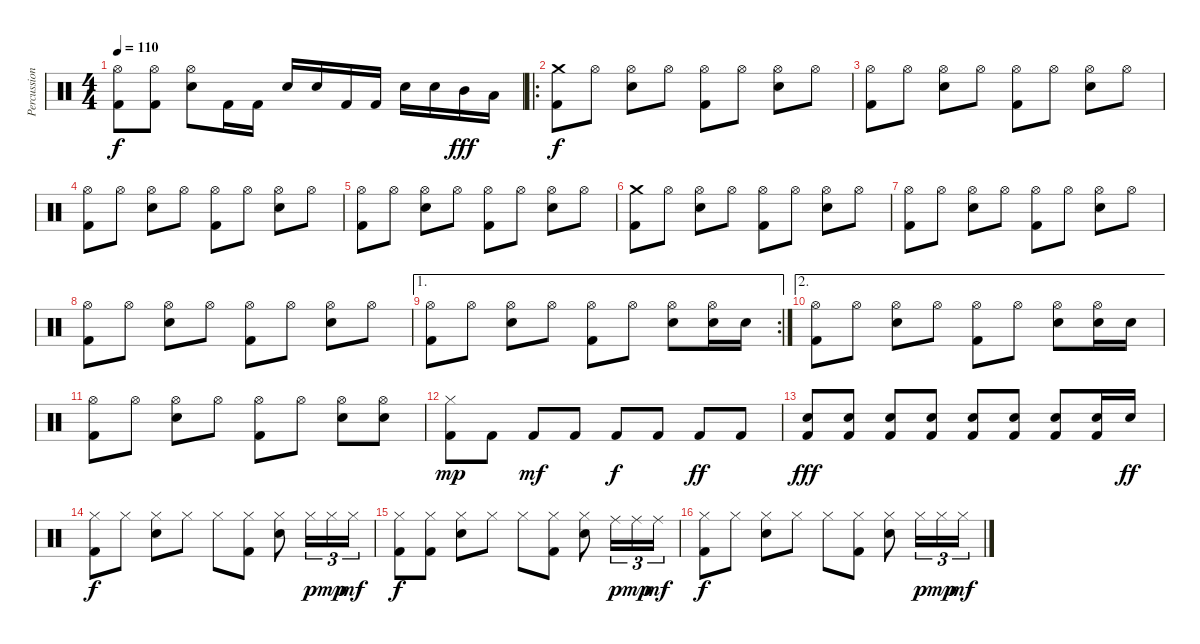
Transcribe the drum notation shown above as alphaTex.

\track ("Percussions" "Percussion") {instrument percussion}
\staff {score}
\articulation defaults
\ts (4 4)
\tempo 110
\clef neutral
\ks c
("Hi-Hat (open)" "Kick (hit) 2").8{dy f} ("Hi-Hat (open)" "Kick (hit) 2").8 ("Hi-Hat (open)" "Electric Snare (hit)").8 "Kick (hit) 2".16 "Kick (hit) 2".16 "Electric Snare (hit)".16 "Electric Snare (hit)".16 "Kick (hit) 2".16 "Kick (hit) 2".16 "Electric Snare (hit)".16 "Electric Snare (hit)".16 "Mid Tom (hit)".16{dy fff} "Low Tom (hit)".16 |
\ro
("Crash medium (hit)" "Kick (hit) 2").8{dy f} "Hi-Hat (open)".8 ("Hi-Hat (open)" "Electric Snare (hit)").8 "Hi-Hat (open)".8 ("Hi-Hat (open)" "Kick (hit) 2").8 "Hi-Hat (open)".8 ("Hi-Hat (open)" "Electric Snare (hit)").8 "Hi-Hat (open)".8 |
("Hi-Hat (open)" "Kick (hit) 2").8 "Hi-Hat (open)".8 ("Hi-Hat (open)" "Electric Snare (hit)").8 "Hi-Hat (open)".8 ("Hi-Hat (open)" "Kick (hit) 2").8 "Hi-Hat (open)".8 ("Hi-Hat (open)" "Electric Snare (hit)").8 "Hi-Hat (open)".8 |
("Hi-Hat (open)" "Kick (hit) 2").8 "Hi-Hat (open)".8 ("Hi-Hat (open)" "Electric Snare (hit)").8 "Hi-Hat (open)".8 ("Hi-Hat (open)" "Kick (hit) 2").8 "Hi-Hat (open)".8 ("Hi-Hat (open)" "Electric Snare (hit)").8 "Hi-Hat (open)".8 |
("Hi-Hat (open)" "Kick (hit) 2").8 "Hi-Hat (open)".8 ("Hi-Hat (open)" "Electric Snare (hit)").8 "Hi-Hat (open)".8 ("Hi-Hat (open)" "Kick (hit) 2").8 "Hi-Hat (open)".8 ("Hi-Hat (open)" "Electric Snare (hit)").8 "Hi-Hat (open)".8 |
("Crash medium (hit)" "Kick (hit) 2").8 "Hi-Hat (open)".8 ("Hi-Hat (open)" "Electric Snare (hit)").8 "Hi-Hat (open)".8 ("Hi-Hat (open)" "Kick (hit) 2").8 "Hi-Hat (open)".8 ("Hi-Hat (open)" "Electric Snare (hit)").8 "Hi-Hat (open)".8 |
("Hi-Hat (open)" "Kick (hit) 2").8 "Hi-Hat (open)".8 ("Hi-Hat (open)" "Electric Snare (hit)").8 "Hi-Hat (open)".8 ("Hi-Hat (open)" "Kick (hit) 2").8 "Hi-Hat (open)".8 ("Hi-Hat (open)" "Electric Snare (hit)").8 "Hi-Hat (open)".8 |
("Hi-Hat (open)" "Kick (hit) 2").8 "Hi-Hat (open)".8 ("Hi-Hat (open)" "Electric Snare (hit)").8 "Hi-Hat (open)".8 ("Hi-Hat (open)" "Kick (hit) 2").8 "Hi-Hat (open)".8 ("Hi-Hat (open)" "Electric Snare (hit)").8 "Hi-Hat (open)".8 |
\ae 1
\rc 2
("Hi-Hat (open)" "Kick (hit) 2").8 "Hi-Hat (open)".8 ("Hi-Hat (open)" "Electric Snare (hit)").8 "Hi-Hat (open)".8 ("Hi-Hat (open)" "Kick (hit) 2").8 "Hi-Hat (open)".8 ("Hi-Hat (open)" "Electric Snare (hit)").8 ("Hi-Hat (open)" "Electric Snare (hit)").16 "Electric Snare (hit)".16 |
\ae 2
("Hi-Hat (open)" "Kick (hit) 2").8 "Hi-Hat (open)".8 ("Hi-Hat (open)" "Electric Snare (hit)").8 "Hi-Hat (open)".8 ("Hi-Hat (open)" "Kick (hit) 2").8 "Hi-Hat (open)".8 ("Hi-Hat (open)" "Electric Snare (hit)").8 ("Hi-Hat (open)" "Electric Snare (hit)").16 "Electric Snare (hit)".16 |
("Hi-Hat (open)" "Kick (hit) 2").8 "Hi-Hat (open)".8 ("Hi-Hat (open)" "Electric Snare (hit)").8 "Hi-Hat (open)".8 ("Hi-Hat (open)" "Kick (hit) 2").8 "Hi-Hat (open)".8 ("Hi-Hat (open)" "Electric Snare (hit)").8 ("Hi-Hat (open)" "Electric Snare (hit)").8 |
("Hi-Hat (closed)" "Kick (hit) 2").8{dy mp} "Kick (hit) 2".8 "Kick (hit) 2".8{dy mf} "Kick (hit) 2".8 "Kick (hit) 2".8{dy f} "Kick (hit) 2".8 "Kick (hit) 2".8{dy ff} "Kick (hit) 2".8 |
("Electric Snare (hit)" "Kick (hit) 2").8{dy fff} ("Electric Snare (hit)" "Kick (hit) 2").8 ("Electric Snare (hit)" "Kick (hit) 2").8 ("Electric Snare (hit)" "Kick (hit) 2").8 ("Electric Snare (hit)" "Kick (hit) 2").8 ("Electric Snare (hit)" "Kick (hit) 2").8 ("Electric Snare (hit)" "Kick (hit) 2").8 ("Electric Snare (hit)" "Kick (hit) 2").16 "Electric Snare (hit)".16{dy ff} |
("Hi-Hat (closed)" "Kick (hit) 2").8{dy f} "Hi-Hat (closed)".8 ("Hi-Hat (closed)" "Electric Snare (hit)").8 "Hi-Hat (closed)".8 "Hi-Hat (closed)".8 ("Hi-Hat (closed)" "Kick (hit) 2").8 ("Hi-Hat (closed)" "Electric Snare (hit)").8 "Hi-Hat (closed)".16{tu (3 2) dy p} "Hi-Hat (closed)".16{tu (3 2) dy mp} "Hi-Hat (closed)".16{tu (3 2) dy mf} |
("Hi-Hat (closed)" "Kick (hit) 2").8{dy f} ("Hi-Hat (closed)" "Kick (hit) 2").8 ("Hi-Hat (closed)" "Electric Snare (hit)").8 "Hi-Hat (closed)".8 "Hi-Hat (closed)".8 ("Hi-Hat (closed)" "Kick (hit) 2").8 ("Hi-Hat (closed)" "Electric Snare (hit)").8 "Ride (middle)".16{tu (3 2) dy p} "Ride (middle)".16{tu (3 2) dy mp} "Ride (middle)".16{tu (3 2) dy mf} |
("Hi-Hat (closed)" "Kick (hit) 2").8{dy f} "Hi-Hat (closed)".8 ("Hi-Hat (closed)" "Electric Snare (hit)").8 "Hi-Hat (closed)".8 "Hi-Hat (closed)".8 ("Hi-Hat (closed)" "Kick (hit) 2").8 ("Hi-Hat (closed)" "Electric Snare (hit)").8 "Hi-Hat (closed)".16{tu (3 2) dy p} "Hi-Hat (closed)".16{tu (3 2) dy mp} "Hi-Hat (closed)".16{tu (3 2) dy mf}
